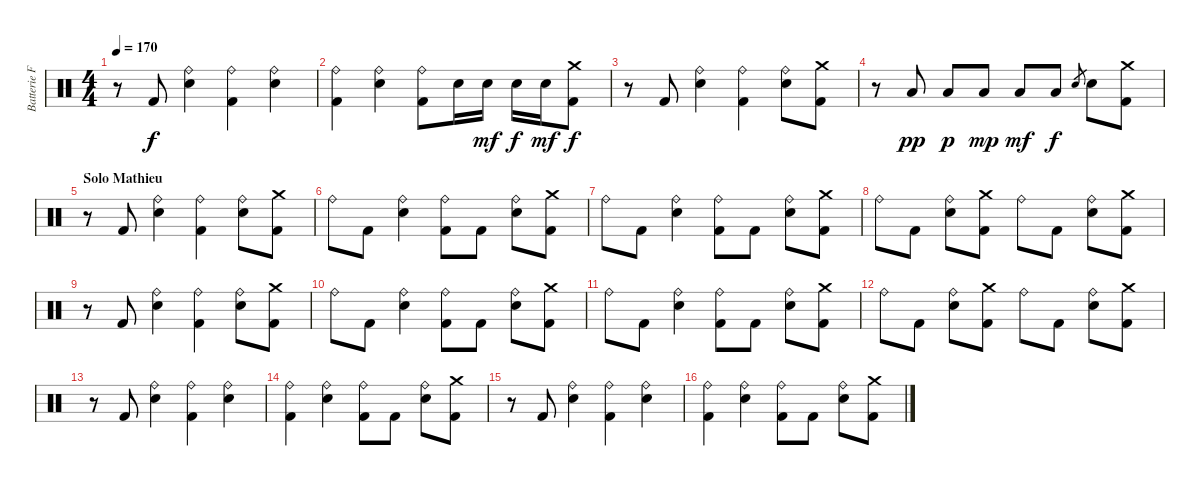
\track ("Batterie Franck" "Batterie F") {instrument percussion}
\staff {score}
\articulation defaults
\ts (4 4)
\tempo 170
\clef neutral
\ks c
r.8{dy f} "Kick (hit) 2".8 ("Ride (bell)" "Snare (hit) 2").4 ("Ride (bell)" "Kick (hit) 2").4 ("Ride (bell)" "Snare (hit) 2").4 |
("Ride (bell)" "Kick (hit) 2").4 ("Ride (bell)" "Snare (hit) 2").4 ("Ride (bell)" "Kick (hit) 2").8 "Snare (hit) 2".16 "Snare (hit) 2".16{dy mf} "Snare (hit) 2".16{dy f} "Snare (hit) 2".16{dy mf} ("Crash medium (hit)" "Kick (hit) 2").8{dy f} |
r.8 "Kick (hit) 2".8 ("Ride (bell)" "Snare (hit) 2").4 ("Ride (bell)" "Kick (hit) 2").4 ("Ride (bell)" "Snare (hit) 2").8 ("Crash medium (hit)" "Kick (hit) 2").8 |
r.8 "Low Floor Tom (hit)".8{dy pp} "Low Floor Tom (hit)".8{dy p} "Low Floor Tom (hit)".8{dy mp} "Low Floor Tom (hit)".8{dy mf} "Low Floor Tom (hit)".8{dy f} "Snare (hit) 2".8{gr} "Snare (hit) 2".8 ("Crash medium (hit)" "Kick (hit) 2").8 |
\section ("" "Solo Mathieu")
r.8 "Kick (hit) 2".8 ("Ride (bell)" "Snare (hit) 2").4 ("Ride (bell)" "Kick (hit) 2").4 ("Ride (bell)" "Snare (hit) 2").8 ("Crash medium (hit)" "Kick (hit) 2").8 |
"Ride (bell)".8 "Kick (hit) 2".8 ("Ride (bell)" "Snare (hit) 2").4 ("Ride (bell)" "Kick (hit) 2").8 "Kick (hit) 2".8 ("Ride (bell)" "Snare (hit) 2").8 ("Crash medium (hit)" "Kick (hit) 2").8 |
"Ride (bell)".8 "Kick (hit) 2".8 ("Ride (bell)" "Snare (hit) 2").4 ("Ride (bell)" "Kick (hit) 2").8 "Kick (hit) 2".8 ("Ride (bell)" "Snare (hit) 2").8 ("Crash medium (hit)" "Kick (hit) 2").8 |
"Ride (bell)".8 "Kick (hit) 2".8 ("Ride (bell)" "Snare (hit) 2").8 ("Crash medium (hit)" "Kick (hit) 2").8 "Ride (bell)".8 "Kick (hit) 2".8 ("Ride (bell)" "Snare (hit) 2").8 ("Crash medium (hit)" "Kick (hit) 2").8 |
r.8 "Kick (hit) 2".8 ("Ride (bell)" "Snare (hit) 2").4 ("Ride (bell)" "Kick (hit) 2").4 ("Ride (bell)" "Snare (hit) 2").8 ("Crash medium (hit)" "Kick (hit) 2").8 |
"Ride (bell)".8 "Kick (hit) 2".8 ("Ride (bell)" "Snare (hit) 2").4 ("Ride (bell)" "Kick (hit) 2").8 "Kick (hit) 2".8 ("Ride (bell)" "Snare (hit) 2").8 ("Crash medium (hit)" "Kick (hit) 2").8 |
"Ride (bell)".8 "Kick (hit) 2".8 ("Ride (bell)" "Snare (hit) 2").4 ("Ride (bell)" "Kick (hit) 2").8 "Kick (hit) 2".8 ("Ride (bell)" "Snare (hit) 2").8 ("Crash medium (hit)" "Kick (hit) 2").8 |
"Ride (bell)".8 "Kick (hit) 2".8 ("Ride (bell)" "Snare (hit) 2").8 ("Crash medium (hit)" "Kick (hit) 2").8 "Ride (bell)".8 "Kick (hit) 2".8 ("Ride (bell)" "Snare (hit) 2").8 ("Crash medium (hit)" "Kick (hit) 2").8 |
r.8 "Kick (hit) 2".8 ("Ride (bell)" "Snare (hit) 2").4 ("Ride (bell)" "Kick (hit) 2").4 ("Ride (bell)" "Snare (hit) 2").4 |
("Ride (bell)" "Kick (hit) 2").4 ("Ride (bell)" "Snare (hit) 2").4 ("Ride (bell)" "Kick (hit) 2").8 "Kick (hit) 2".8 ("Ride (bell)" "Snare (hit) 2").8 ("Crash medium (hit)" "Kick (hit) 2").8 |
r.8 "Kick (hit) 2".8 ("Ride (bell)" "Snare (hit) 2").4 ("Ride (bell)" "Kick (hit) 2").4 ("Ride (bell)" "Snare (hit) 2").4 |
("Ride (bell)" "Kick (hit) 2").4 ("Ride (bell)" "Snare (hit) 2").4 ("Ride (bell)" "Kick (hit) 2").8 "Kick (hit) 2".8 ("Ride (bell)" "Snare (hit) 2").8 ("Crash medium (hit)" "Kick (hit) 2").8
